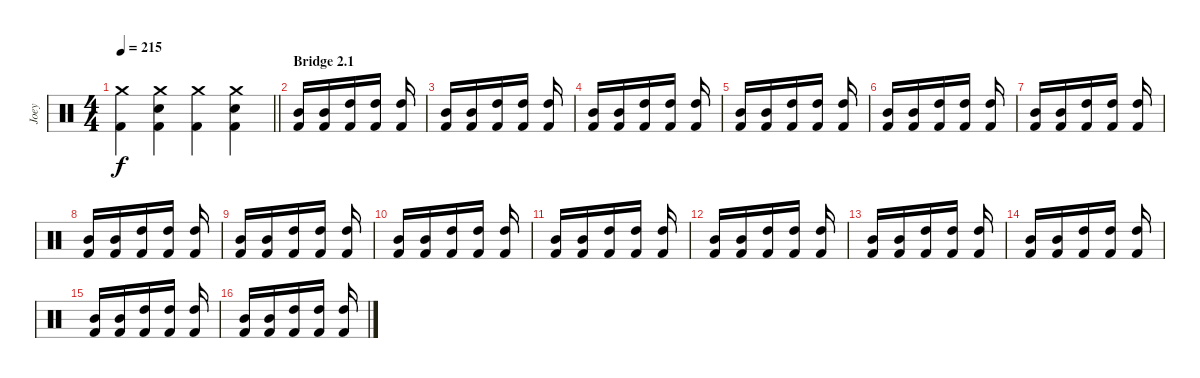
\track ("Joey" "Joey") {instrument percussion}
\staff {score}
\articulation defaults
\ts (4 4)
\tempo 215
\clef neutral
\barLineRight lightlight
\ks c
("Crash medium (hit)" "Kick (hit) 2").4{dy f} ("Crash medium (hit)" "Electric Snare (hit)" "Kick (hit) 2").4 ("Crash medium (hit)" "Kick (hit) 2").4 ("Crash medium (hit)" "Electric Snare (hit)" "Kick (hit) 2").4 |
\section ("" "Bridge 2.1")
("Mid Tom (hit)" "Kick (hit) 2").16 ("Mid Tom (hit)" "Kick (hit) 2").16 ("High Tom (hit)" "Kick (hit) 2").16 ("High Tom (hit)" "Kick (hit) 2").16 ("High Tom (hit)" "Kick (hit) 2").16 |
("Mid Tom (hit)" "Kick (hit) 2").16 ("Mid Tom (hit)" "Kick (hit) 2").16 ("High Tom (hit)" "Kick (hit) 2").16 ("High Tom (hit)" "Kick (hit) 2").16 ("High Tom (hit)" "Kick (hit) 2").16 |
("Mid Tom (hit)" "Kick (hit) 2").16 ("Mid Tom (hit)" "Kick (hit) 2").16 ("High Tom (hit)" "Kick (hit) 2").16 ("High Tom (hit)" "Kick (hit) 2").16 ("High Tom (hit)" "Kick (hit) 2").16 |
("Mid Tom (hit)" "Kick (hit) 2").16 ("Mid Tom (hit)" "Kick (hit) 2").16 ("High Tom (hit)" "Kick (hit) 2").16 ("High Tom (hit)" "Kick (hit) 2").16 ("High Tom (hit)" "Kick (hit) 2").16 |
("Mid Tom (hit)" "Kick (hit) 2").16 ("Mid Tom (hit)" "Kick (hit) 2").16 ("High Tom (hit)" "Kick (hit) 2").16 ("High Tom (hit)" "Kick (hit) 2").16 ("High Tom (hit)" "Kick (hit) 2").16 |
("Mid Tom (hit)" "Kick (hit) 2").16 ("Mid Tom (hit)" "Kick (hit) 2").16 ("High Tom (hit)" "Kick (hit) 2").16 ("High Tom (hit)" "Kick (hit) 2").16 ("High Tom (hit)" "Kick (hit) 2").16 |
("Mid Tom (hit)" "Kick (hit) 2").16 ("Mid Tom (hit)" "Kick (hit) 2").16 ("High Tom (hit)" "Kick (hit) 2").16 ("High Tom (hit)" "Kick (hit) 2").16 ("High Tom (hit)" "Kick (hit) 2").16 |
("Mid Tom (hit)" "Kick (hit) 2").16 ("Mid Tom (hit)" "Kick (hit) 2").16 ("High Tom (hit)" "Kick (hit) 2").16 ("High Tom (hit)" "Kick (hit) 2").16 ("High Tom (hit)" "Kick (hit) 2").16 |
("Mid Tom (hit)" "Kick (hit) 2").16 ("Mid Tom (hit)" "Kick (hit) 2").16 ("High Tom (hit)" "Kick (hit) 2").16 ("High Tom (hit)" "Kick (hit) 2").16 ("High Tom (hit)" "Kick (hit) 2").16 |
("Mid Tom (hit)" "Kick (hit) 2").16 ("Mid Tom (hit)" "Kick (hit) 2").16 ("High Tom (hit)" "Kick (hit) 2").16 ("High Tom (hit)" "Kick (hit) 2").16 ("High Tom (hit)" "Kick (hit) 2").16 |
("Mid Tom (hit)" "Kick (hit) 2").16 ("Mid Tom (hit)" "Kick (hit) 2").16 ("High Tom (hit)" "Kick (hit) 2").16 ("High Tom (hit)" "Kick (hit) 2").16 ("High Tom (hit)" "Kick (hit) 2").16 |
("Mid Tom (hit)" "Kick (hit) 2").16 ("Mid Tom (hit)" "Kick (hit) 2").16 ("High Tom (hit)" "Kick (hit) 2").16 ("High Tom (hit)" "Kick (hit) 2").16 ("High Tom (hit)" "Kick (hit) 2").16 |
("Mid Tom (hit)" "Kick (hit) 2").16 ("Mid Tom (hit)" "Kick (hit) 2").16 ("High Tom (hit)" "Kick (hit) 2").16 ("High Tom (hit)" "Kick (hit) 2").16 ("High Tom (hit)" "Kick (hit) 2").16 |
("Mid Tom (hit)" "Kick (hit) 2").16 ("Mid Tom (hit)" "Kick (hit) 2").16 ("High Tom (hit)" "Kick (hit) 2").16 ("High Tom (hit)" "Kick (hit) 2").16 ("High Tom (hit)" "Kick (hit) 2").16 |
("Mid Tom (hit)" "Kick (hit) 2").16 ("Mid Tom (hit)" "Kick (hit) 2").16 ("High Tom (hit)" "Kick (hit) 2").16 ("High Tom (hit)" "Kick (hit) 2").16 ("High Tom (hit)" "Kick (hit) 2").16
